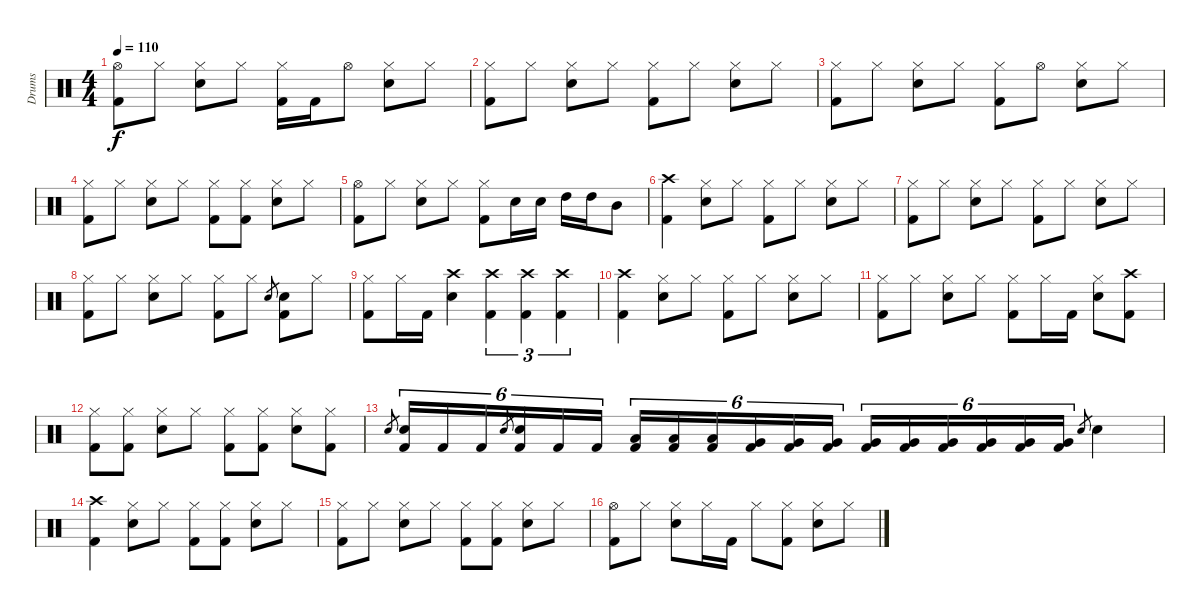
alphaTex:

\track ("Drums" "Drums") {instrument percussion}
\staff {score}
\articulation defaults
\ts (4 4)
\tempo 110
\clef neutral
\ks c
("Hi-Hat (open)" "Kick (hit) 2").8{dy f} "Hi-Hat (closed)".8 ("Hi-Hat (closed)" "Electric Snare (hit)").8 "Hi-Hat (closed)".8 ("Hi-Hat (closed)" "Kick (hit) 2").16 "Kick (hit) 2".16 "Hi-Hat (open)".8 ("Hi-Hat (closed)" "Electric Snare (hit)").8 "Hi-Hat (closed)".8 |
("Hi-Hat (closed)" "Kick (hit) 2").8 "Hi-Hat (closed)".8 ("Hi-Hat (closed)" "Electric Snare (hit)").8 "Hi-Hat (closed)".8 ("Hi-Hat (closed)" "Kick (hit) 2").8 "Hi-Hat (closed)".8 ("Hi-Hat (closed)" "Electric Snare (hit)").8 "Hi-Hat (closed)".8 |
("Hi-Hat (closed)" "Kick (hit) 2").8 "Hi-Hat (closed)".8 ("Hi-Hat (closed)" "Electric Snare (hit)").8 "Hi-Hat (closed)".8 ("Hi-Hat (closed)" "Kick (hit) 2").8 "Hi-Hat (open)".8 ("Hi-Hat (closed)" "Electric Snare (hit)").8 "Hi-Hat (closed)".8 |
("Hi-Hat (closed)" "Kick (hit) 2").8 "Hi-Hat (closed)".8 ("Hi-Hat (closed)" "Electric Snare (hit)").8 "Hi-Hat (closed)".8 ("Hi-Hat (closed)" "Kick (hit) 2").8 ("Hi-Hat (closed)" "Kick (hit) 2").8 ("Hi-Hat (closed)" "Electric Snare (hit)").8 "Hi-Hat (closed)".8 |
("Hi-Hat (open)" "Kick (hit) 2").8 "Hi-Hat (closed)".8 ("Hi-Hat (closed)" "Electric Snare (hit)").8 "Hi-Hat (closed)".8 ("Hi-Hat (closed)" "Kick (hit) 2").8 "Electric Snare (hit)".16 "Electric Snare (hit)".16 "High Tom (hit)".16 "High Tom (hit)".16 "Mid Tom (hit)".8 |
("Crash high (hit)" "Kick (hit) 2").4 ("Hi-Hat (closed)" "Electric Snare (hit)").8 "Hi-Hat (closed)".8 ("Hi-Hat (closed)" "Kick (hit) 2").8 "Hi-Hat (closed)".8 ("Hi-Hat (closed)" "Electric Snare (hit)").8 "Hi-Hat (closed)".8 |
("Hi-Hat (closed)" "Kick (hit) 2").8 "Hi-Hat (closed)".8 ("Hi-Hat (closed)" "Electric Snare (hit)").8 "Hi-Hat (closed)".8 ("Hi-Hat (closed)" "Kick (hit) 2").8 "Hi-Hat (closed)".8 ("Hi-Hat (closed)" "Electric Snare (hit)").8 "Hi-Hat (closed)".8 |
("Hi-Hat (closed)" "Kick (hit) 2").8 "Hi-Hat (closed)".8 ("Hi-Hat (closed)" "Electric Snare (hit)").8 "Hi-Hat (closed)".8 ("Hi-Hat (closed)" "Kick (hit) 2").8 "Hi-Hat (closed)".8 "Electric Snare (hit)".8{gr} ("Electric Snare (hit)" "Kick (hit) 2").8 "Hi-Hat (closed)".8 |
("Hi-Hat (closed)" "Kick (hit) 2").8 "Hi-Hat (closed)".16 "Kick (hit) 2".16 ("Crash high (hit)" "Electric Snare (hit)").4 ("Crash high (hit)" "Kick (hit) 2").4{tu (3 2)} ("Crash high (hit)" "Kick (hit) 2").4{tu (3 2)} ("Crash high (hit)" "Kick (hit) 2").4{tu (3 2)} |
("Crash high (hit)" "Kick (hit) 2").4 ("Hi-Hat (closed)" "Electric Snare (hit)").8 "Hi-Hat (closed)".8 ("Hi-Hat (closed)" "Kick (hit) 2").8 "Hi-Hat (closed)".8 ("Hi-Hat (closed)" "Electric Snare (hit)").8 "Hi-Hat (closed)".8 |
("Hi-Hat (closed)" "Kick (hit) 2").8 "Hi-Hat (closed)".8 ("Hi-Hat (closed)" "Electric Snare (hit)").8 "Hi-Hat (closed)".8 ("Hi-Hat (closed)" "Kick (hit) 2").8 "Hi-Hat (closed)".16 "Kick (hit) 2".16 ("Hi-Hat (closed)" "Electric Snare (hit)").8 ("Crash high (hit)" "Kick (hit) 2").8 |
("Hi-Hat (closed)" "Kick (hit) 2").8 ("Hi-Hat (closed)" "Kick (hit) 2").8 ("Hi-Hat (closed)" "Electric Snare (hit)").8 "Hi-Hat (closed)".8 ("Hi-Hat (closed)" "Kick (hit) 2").8 ("Hi-Hat (closed)" "Kick (hit) 2").8 ("Hi-Hat (closed)" "Electric Snare (hit)").8 ("Hi-Hat (closed)" "Kick (hit) 2").8 |
"Electric Snare (hit)".8{gr} ("Electric Snare (hit)" "Kick (hit) 2").16{tu (6 4)} "Kick (hit) 2".16{tu (6 4)} "Kick (hit) 2".16{tu (6 4)} "Electric Snare (hit)".8{gr} ("Electric Snare (hit)" "Kick (hit) 2").16{tu (6 4)} "Kick (hit) 2".16{tu (6 4)} "Kick (hit) 2".16{tu (6 4)} ("Low Tom (hit)" "Kick (hit) 2").16{tu (6 4)} ("Low Tom (hit)" "Kick (hit) 2").16{tu (6 4)} ("Low Tom (hit)" "Kick (hit) 2").16{tu (6 4)} ("Very Low Tom (hit)" "Kick (hit) 2").16{tu (6 4)} ("Very Low Tom (hit)" "Kick (hit) 2").16{tu (6 4)} ("Very Low Tom (hit)" "Kick (hit) 2").16{tu (6 4)} ("Very Low Tom (hit)" "Kick (hit) 2").16{tu (6 4)} ("Very Low Tom (hit)" "Kick (hit) 2").16{tu (6 4)} ("Very Low Tom (hit)" "Kick (hit) 2").16{tu (6 4)} ("Very Low Tom (hit)" "Kick (hit) 2").16{tu (6 4)} ("Very Low Tom (hit)" "Kick (hit) 2").16{tu (6 4)} ("Very Low Tom (hit)" "Kick (hit) 2").16{tu (6 4)} "Electric Snare (hit)".8{gr} "Electric Snare (hit)".4 |
("Crash high (hit)" "Kick (hit) 2").4 ("Hi-Hat (closed)" "Electric Snare (hit)").8 "Hi-Hat (closed)".8 ("Hi-Hat (closed)" "Kick (hit) 2").8 ("Hi-Hat (closed)" "Kick (hit) 2").8 ("Hi-Hat (closed)" "Electric Snare (hit)").8 "Hi-Hat (closed)".8 |
("Hi-Hat (closed)" "Kick (hit) 2").8 "Hi-Hat (closed)".8 ("Hi-Hat (closed)" "Electric Snare (hit)").8 "Hi-Hat (closed)".8 ("Hi-Hat (closed)" "Kick (hit) 2").8 ("Hi-Hat (closed)" "Kick (hit) 2").8 ("Hi-Hat (closed)" "Electric Snare (hit)").8 "Hi-Hat (closed)".8 |
("Hi-Hat (open)" "Kick (hit) 2").8 "Hi-Hat (closed)".8 ("Hi-Hat (closed)" "Electric Snare (hit)").8 "Hi-Hat (closed)".16 "Kick (hit) 2".16 "Hi-Hat (closed)".8 ("Hi-Hat (closed)" "Kick (hit) 2").8 ("Hi-Hat (closed)" "Electric Snare (hit)").8 "Hi-Hat (closed)".8
